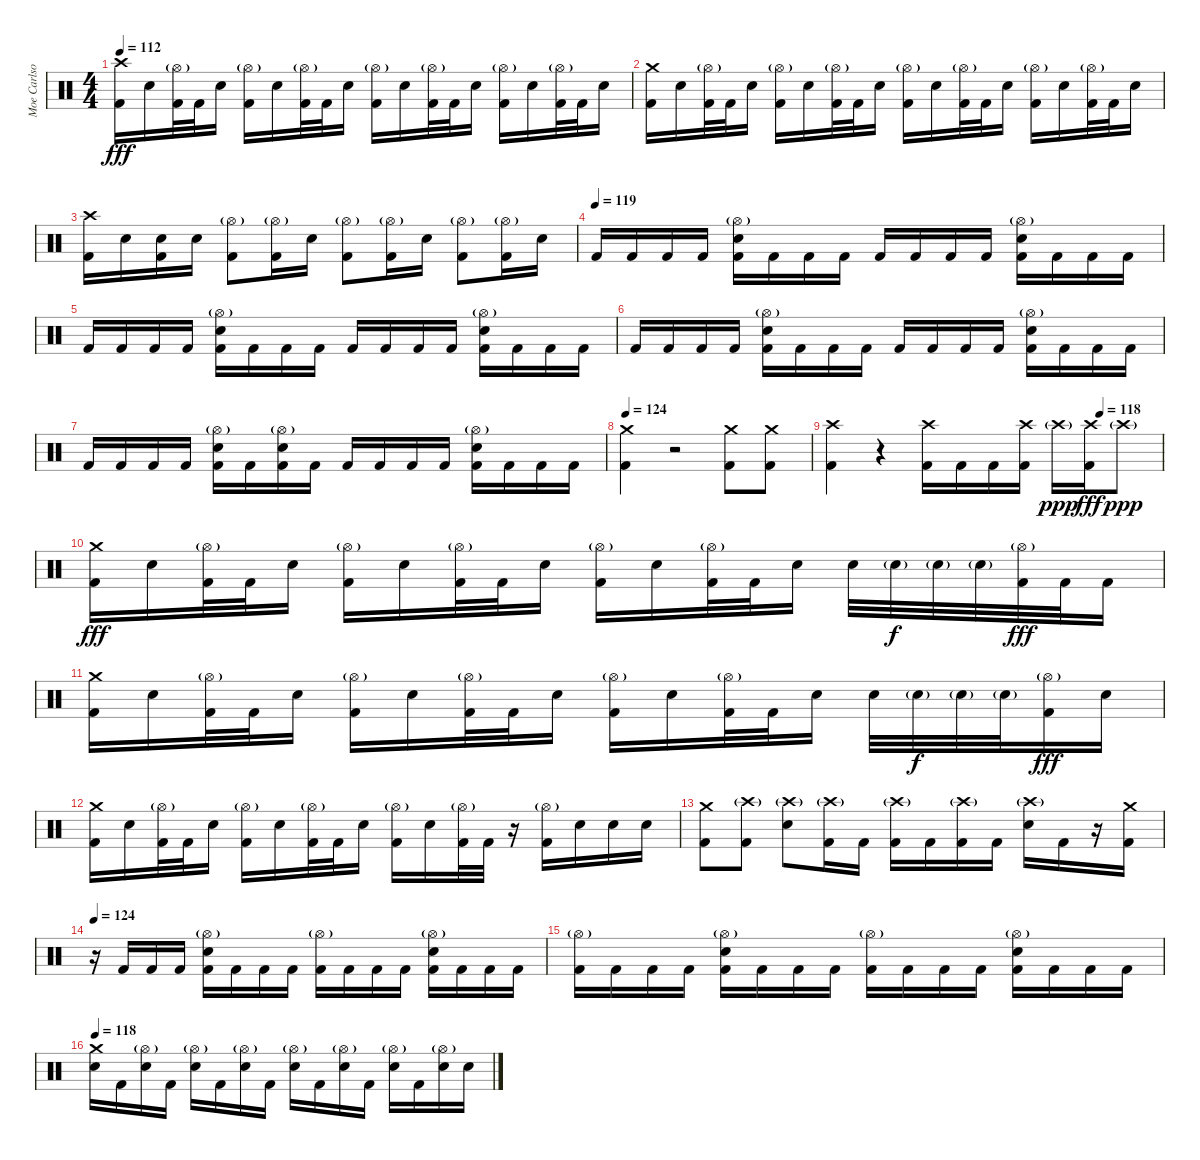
\track ("Moe Carlson" "Moe Carlso") {instrument percussion}
\staff {score}
\articulation defaults
\ts (4 4)
\tempo 112
\clef neutral
\ks c
("Crash high (hit)" "Kick (hit) 2").16{dy fff} "Electric Snare (hit)".16 ("Hi-Hat (open)"{g} "Kick (hit) 2").32 "Kick (hit) 2".32 "Electric Snare (hit)".16 ("Hi-Hat (open)"{g} "Kick (hit) 2").16 "Electric Snare (hit)".16 ("Hi-Hat (open)"{g} "Kick (hit) 2").32 "Kick (hit) 2".32 "Electric Snare (hit)".16 ("Hi-Hat (open)"{g} "Kick (hit) 2").16 "Electric Snare (hit)".16 ("Hi-Hat (open)"{g} "Kick (hit) 2").32 "Kick (hit) 2".32 "Electric Snare (hit)".16 ("Hi-Hat (open)"{g} "Kick (hit) 2").16 "Electric Snare (hit)".16 ("Hi-Hat (open)"{g} "Kick (hit) 2").32 "Kick (hit) 2".32 "Electric Snare (hit)".16 |
("Crash medium (hit)" "Kick (hit) 2").16 "Electric Snare (hit)".16 ("Hi-Hat (open)"{g} "Kick (hit) 2").32 "Kick (hit) 2".32 "Electric Snare (hit)".16 ("Hi-Hat (open)"{g} "Kick (hit) 2").16 "Electric Snare (hit)".16 ("Hi-Hat (open)"{g} "Kick (hit) 2").32 "Kick (hit) 2".32 "Electric Snare (hit)".16 ("Hi-Hat (open)"{g} "Kick (hit) 2").16 "Electric Snare (hit)".16 ("Hi-Hat (open)"{g} "Kick (hit) 2").32 "Kick (hit) 2".32 "Electric Snare (hit)".16 ("Hi-Hat (open)"{g} "Kick (hit) 2").16 "Electric Snare (hit)".16 ("Hi-Hat (open)"{g} "Kick (hit) 2").32 "Kick (hit) 2".32 "Electric Snare (hit)".16 |
("Crash high (hit)" "Kick (hit) 2").16 "Electric Snare (hit)".16 ("Electric Snare (hit)" "Kick (hit) 2").16 "Electric Snare (hit)".16 ("Hi-Hat (open)"{g} "Kick (hit) 2").8 ("Hi-Hat (open)"{g} "Kick (hit) 2").16 "Electric Snare (hit)".16 ("Hi-Hat (open)"{g} "Kick (hit) 2").8 ("Hi-Hat (open)"{g} "Kick (hit) 2").16 "Electric Snare (hit)".16 ("Hi-Hat (open)"{g} "Kick (hit) 2").8 ("Hi-Hat (open)"{g} "Kick (hit) 2").16 "Electric Snare (hit)".16 |
\tempo (119)
"Kick (hit) 2".16 "Kick (hit) 2".16 "Kick (hit) 2".16 "Kick (hit) 2".16 ("Hi-Hat (open)"{g} "Electric Snare (hit)" "Kick (hit) 2").16 "Kick (hit) 2".16 "Kick (hit) 2".16 "Kick (hit) 2".16 "Kick (hit) 2".16 "Kick (hit) 2".16 "Kick (hit) 2".16 "Kick (hit) 2".16 ("Hi-Hat (open)"{g} "Electric Snare (hit)" "Kick (hit) 2").16 "Kick (hit) 2".16 "Kick (hit) 2".16 "Kick (hit) 2".16 |
"Kick (hit) 2".16 "Kick (hit) 2".16 "Kick (hit) 2".16 "Kick (hit) 2".16 ("Hi-Hat (open)"{g} "Electric Snare (hit)" "Kick (hit) 2").16 "Kick (hit) 2".16 "Kick (hit) 2".16 "Kick (hit) 2".16 "Kick (hit) 2".16 "Kick (hit) 2".16 "Kick (hit) 2".16 "Kick (hit) 2".16 ("Hi-Hat (open)"{g} "Electric Snare (hit)" "Kick (hit) 2").16 "Kick (hit) 2".16 "Kick (hit) 2".16 "Kick (hit) 2".16 |
"Kick (hit) 2".16 "Kick (hit) 2".16 "Kick (hit) 2".16 "Kick (hit) 2".16 ("Hi-Hat (open)"{g} "Electric Snare (hit)" "Kick (hit) 2").16 "Kick (hit) 2".16 "Kick (hit) 2".16 "Kick (hit) 2".16 "Kick (hit) 2".16 "Kick (hit) 2".16 "Kick (hit) 2".16 "Kick (hit) 2".16 ("Hi-Hat (open)"{g} "Electric Snare (hit)" "Kick (hit) 2").16 "Kick (hit) 2".16 "Kick (hit) 2".16 "Kick (hit) 2".16 |
"Kick (hit) 2".16 "Kick (hit) 2".16 "Kick (hit) 2".16 "Kick (hit) 2".16 ("Hi-Hat (open)"{g} "Electric Snare (hit)" "Kick (hit) 2").16 "Kick (hit) 2".16 ("Hi-Hat (open)"{g} "Electric Snare (hit)" "Kick (hit) 2").16 "Kick (hit) 2".16 "Kick (hit) 2".16 "Kick (hit) 2".16 "Kick (hit) 2".16 "Kick (hit) 2".16 ("Hi-Hat (open)"{g} "Electric Snare (hit)" "Kick (hit) 2").16 "Kick (hit) 2".16 "Kick (hit) 2".16 "Kick (hit) 2".16 |
\tempo 124
("Crash medium (hit)" "Kick (hit) 2").4 r.2 ("Crash medium (hit)" "Kick (hit) 2").8 ("Crash medium (hit)" "Kick (hit) 2").8 |
\tempo (118 0.8125)
("Crash high (hit)" "Kick (hit) 2").4 r.4 ("Crash high (hit)" "Kick (hit) 2").16 "Kick (hit) 2".16 "Kick (hit) 2".16 ("Crash high (hit)" "Kick (hit) 2").16 "Crash high (hit)"{g}.16{dy ppp} ("Crash high (hit)" "Kick (hit) 2").16{dy fff} "Crash high (hit)"{g}.8{dy ppp} |
("Crash medium (hit)" "Kick (hit) 2").16{dy fff} "Electric Snare (hit)".16 ("Hi-Hat (open)"{g} "Kick (hit) 2").32 "Kick (hit) 2".32 "Electric Snare (hit)".16 ("Hi-Hat (open)"{g} "Kick (hit) 2").16 "Electric Snare (hit)".16 ("Hi-Hat (open)"{g} "Kick (hit) 2").32 "Kick (hit) 2".32 "Electric Snare (hit)".16 ("Hi-Hat (open)"{g} "Kick (hit) 2").16 "Electric Snare (hit)".16 ("Hi-Hat (open)"{g} "Kick (hit) 2").32 "Kick (hit) 2".32 "Electric Snare (hit)".16 "Electric Snare (hit)".32 "Electric Snare (hit)"{g}.32{dy f} "Electric Snare (hit)"{g}.32 "Electric Snare (hit)"{g}.32 ("Hi-Hat (open)"{g} "Kick (hit) 2").32{dy fff} "Kick (hit) 2".32 "Kick (hit) 2".16 |
("Crash medium (hit)" "Kick (hit) 2").16 "Electric Snare (hit)".16 ("Hi-Hat (open)"{g} "Kick (hit) 2").32 "Kick (hit) 2".32 "Electric Snare (hit)".16 ("Hi-Hat (open)"{g} "Kick (hit) 2").16 "Electric Snare (hit)".16 ("Hi-Hat (open)"{g} "Kick (hit) 2").32 "Kick (hit) 2".32 "Electric Snare (hit)".16 ("Hi-Hat (open)"{g} "Kick (hit) 2").16 "Electric Snare (hit)".16 ("Hi-Hat (open)"{g} "Kick (hit) 2").32 "Kick (hit) 2".32 "Electric Snare (hit)".16 "Electric Snare (hit)".32 "Electric Snare (hit)"{g}.32{dy f} "Electric Snare (hit)"{g}.32 "Electric Snare (hit)"{g}.32 ("Hi-Hat (open)"{g} "Kick (hit) 2").16{dy fff} "Electric Snare (hit)".16 |
("Crash medium (hit)" "Kick (hit) 2").16 "Electric Snare (hit)".16 ("Hi-Hat (open)"{g} "Kick (hit) 2").32 "Kick (hit) 2".32 "Electric Snare (hit)".16 ("Hi-Hat (open)"{g} "Kick (hit) 2").16 "Electric Snare (hit)".16 ("Hi-Hat (open)"{g} "Kick (hit) 2").32 "Kick (hit) 2".32 "Electric Snare (hit)".16 ("Hi-Hat (open)"{g} "Kick (hit) 2").16 "Electric Snare (hit)".16 ("Hi-Hat (open)"{g} "Kick (hit) 2").32 "Kick (hit) 2".32 r.16 ("Hi-Hat (open)"{g} "Kick (hit) 2").16 "Electric Snare (hit)".16 "Electric Snare (hit)".16 "Electric Snare (hit)".16 |
("Crash medium (hit)" "Kick (hit) 2").8 ("Crash high (hit)"{g} "Kick (hit) 2").8 ("Crash high (hit)"{g} "Electric Snare (hit)").8 ("Crash high (hit)"{g} "Kick (hit) 2").16 "Kick (hit) 2".16 ("Crash high (hit)"{g} "Kick (hit) 2").16 "Kick (hit) 2".16 ("Crash high (hit)"{g} "Kick (hit) 2").16 "Kick (hit) 2".16 ("Crash high (hit)"{g} "Electric Snare (hit)").16 "Kick (hit) 2".16 r.16 ("Crash medium (hit)" "Kick (hit) 2").16 |
\tempo 124
r.16 "Kick (hit) 2".16 "Kick (hit) 2".16 "Kick (hit) 2".16 ("Hi-Hat (open)"{g} "Electric Snare (hit)" "Kick (hit) 2").16 "Kick (hit) 2".16 "Kick (hit) 2".16 "Kick (hit) 2".16 ("Hi-Hat (open)"{g} "Kick (hit) 2").16 "Kick (hit) 2".16 "Kick (hit) 2".16 "Kick (hit) 2".16 ("Hi-Hat (open)"{g} "Electric Snare (hit)" "Kick (hit) 2").16 "Kick (hit) 2".16 "Kick (hit) 2".16 "Kick (hit) 2".16 |
("Hi-Hat (open)"{g} "Kick (hit) 2").16 "Kick (hit) 2".16 "Kick (hit) 2".16 "Kick (hit) 2".16 ("Hi-Hat (open)"{g} "Electric Snare (hit)" "Kick (hit) 2").16 "Kick (hit) 2".16 "Kick (hit) 2".16 "Kick (hit) 2".16 ("Hi-Hat (open)"{g} "Kick (hit) 2").16 "Kick (hit) 2".16 "Kick (hit) 2".16 "Kick (hit) 2".16 ("Hi-Hat (open)"{g} "Electric Snare (hit)" "Kick (hit) 2").16 "Kick (hit) 2".16 "Kick (hit) 2".16 "Kick (hit) 2".16 |
\tempo 118
("Crash medium (hit)" "Electric Snare (hit)").16 "Kick (hit) 2".16 ("Hi-Hat (open)"{g} "Electric Snare (hit)").16 "Kick (hit) 2".16 ("Hi-Hat (open)"{g} "Electric Snare (hit)").16 "Kick (hit) 2".16 ("Hi-Hat (open)"{g} "Electric Snare (hit)").16 "Kick (hit) 2".16 ("Hi-Hat (open)"{g} "Electric Snare (hit)").16 "Kick (hit) 2".16 ("Hi-Hat (open)"{g} "Electric Snare (hit)").16 "Kick (hit) 2".16 ("Hi-Hat (open)"{g} "Electric Snare (hit)").16 "Kick (hit) 2".16 ("Hi-Hat (open)"{g} "Electric Snare (hit)").16 "Electric Snare (hit)".16
